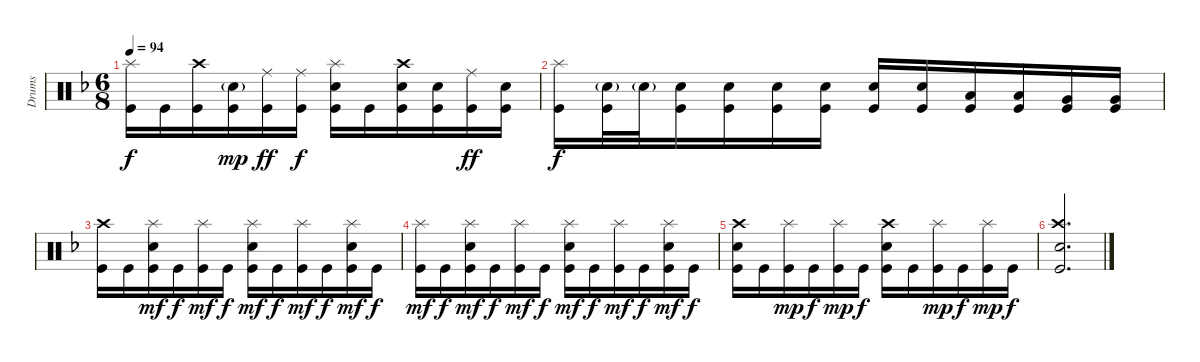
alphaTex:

\track ("Drums" "Drums") {instrument percussion bank 10}
\staff {score}
\articulation defaults
\ts (6 8)
\tempo 94
\clef neutral
\ks dminor
("Splash (hit)" "Kick (hit)").16{dy f} "Kick (hit)".16 ("Crash high (hit)" "Kick (hit)").16 ("Electric Snare (hit)"{g} "Kick (hit)").16{dy mp} ("Ride (middle)" "Kick (hit)").16{dy ff} ("Ride (middle)" "Kick (hit)").16{dy f} ("Splash (hit)" "Electric Snare (hit)" "Kick (hit)").16 "Kick (hit)".16 ("Crash high (hit)" "Electric Snare (hit)" "Kick (hit)").16 ("Electric Snare (hit)" "Kick (hit)").16 ("Ride (middle)" "Kick (hit)").16{dy ff} ("Electric Snare (hit)" "Kick (hit)").16 |
("Splash (hit)" "Kick (hit)").16{dy f} ("Electric Snare (hit)"{g} "Kick (hit)").32 "Electric Snare (hit)"{g}.32 ("Electric Snare (hit)" "Kick (hit)").16 ("Electric Snare (hit)" "Kick (hit)").16 ("Electric Snare (hit)" "Kick (hit)").16 ("Electric Snare (hit)" "Kick (hit)").16 ("Electric Snare (hit)" "Kick (hit)").16 ("Electric Snare (hit)" "Kick (hit)").16 ("Low Tom (hit)" "Kick (hit)").16 ("Low Tom (hit)" "Kick (hit)").16 ("Very Low Tom (hit)" "Kick (hit)").16 ("Very Low Tom (hit)" "Kick (hit)").16 |
("Crash high (hit)" "Kick (hit)").16 "Kick (hit)".16 ("Splash (hit)" "Electric Snare (hit)" "Kick (hit)").16{dy mf} "Kick (hit)".16{dy f} ("Splash (hit)" "Kick (hit)").16{dy mf} "Kick (hit)".16{dy f} ("Splash (hit)" "Electric Snare (hit)" "Kick (hit)").16{dy mf} "Kick (hit)".16{dy f} ("Splash (hit)" "Kick (hit)").16{dy mf} "Kick (hit)".16{dy f} ("Splash (hit)" "Electric Snare (hit)" "Kick (hit)").16{dy mf} "Kick (hit)".16{dy f} |
("Splash (hit)" "Kick (hit)").16{dy mf} "Kick (hit)".16{dy f} ("Splash (hit)" "Electric Snare (hit)" "Kick (hit)").16{dy mf} "Kick (hit)".16{dy f} ("Splash (hit)" "Kick (hit)").16{dy mf} "Kick (hit)".16{dy f} ("Splash (hit)" "Electric Snare (hit)" "Kick (hit)").16{dy mf} "Kick (hit)".16{dy f} ("Splash (hit)" "Kick (hit)").16{dy mf} "Kick (hit)".16{dy f} ("Splash (hit)" "Electric Snare (hit)" "Kick (hit)").16{dy mf} "Kick (hit)".16{dy f} |
("Crash high (hit)" "Electric Snare (hit)" "Kick (hit)").16 "Kick (hit)".16 ("Splash (hit)" "Kick (hit)").16{dy mp} "Kick (hit)".16{dy f} ("Splash (hit)" "Kick (hit)").16{dy mp} "Kick (hit)".16{dy f} ("Crash high (hit)" "Electric Snare (hit)" "Kick (hit)").16 "Kick (hit)".16 ("Splash (hit)" "Kick (hit)").16{dy mp} "Kick (hit)".16{dy f} ("Splash (hit)" "Kick (hit)").16{dy mp} "Kick (hit)".16{dy f} |
("Crash high (hit)" "Electric Snare (hit)" "Kick (hit)").2{d}
